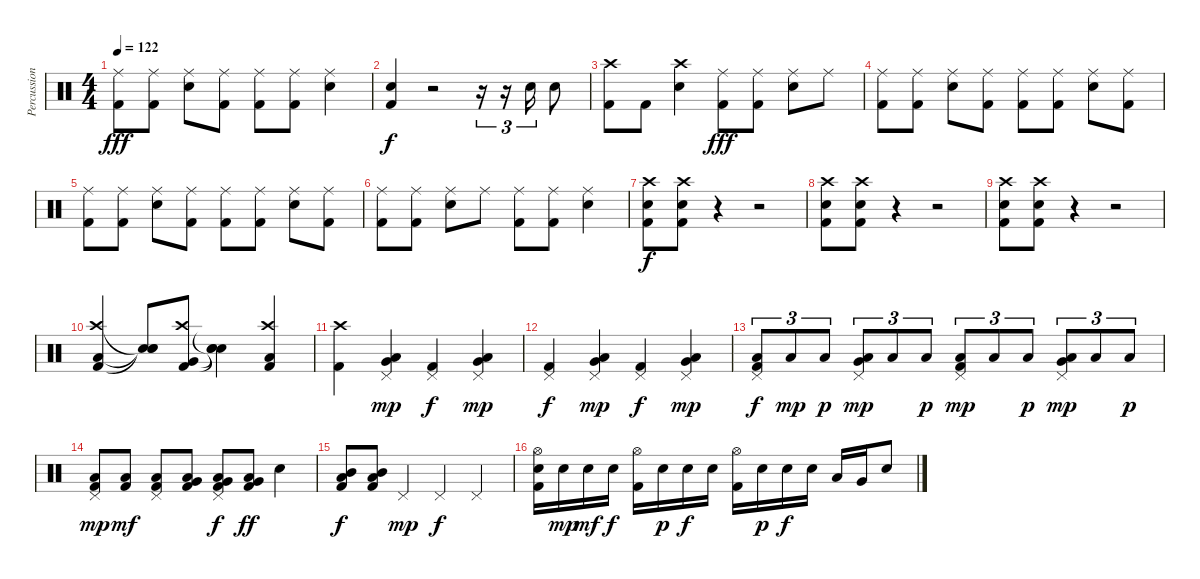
\track ("Percussion (Peter)" "Percussion") {instrument percussion}
\staff {score}
\articulation defaults
\ts (4 4)
\tempo 122
\clef neutral
\ks c
("Ride (middle)" "Kick (hit) 2").8{dy fff} ("Ride (middle)" "Kick (hit) 2").8 ("Ride (middle)" "Snare (hit) 2").8 ("Ride (middle)" "Kick (hit) 2").8 ("Ride (middle)" "Kick (hit) 2").8 ("Ride (middle)" "Kick (hit) 2").8 ("Ride (middle)" "Snare (hit) 2").4 |
("Snare (hit) 2" "Kick (hit) 2").4{dy f} r.2 r.16{tu (3 2)} r.16{tu (3 2)} "Snare (hit) 2".16{tu (3 2)} "Snare (hit) 2".8 |
("Crash high (hit)" "Kick (hit) 2").8 "Kick (hit) 2".8 ("Crash high (hit)" "Snare (hit) 2").4 ("Ride (middle)" "Kick (hit) 2").8{dy fff} ("Ride (middle)" "Kick (hit) 2").8 ("Ride (middle)" "Snare (hit) 2").8 "Ride (middle)".8 |
("Ride (middle)" "Kick (hit) 2").8 ("Ride (middle)" "Kick (hit) 2").8 ("Ride (middle)" "Snare (hit) 2").8 ("Ride (middle)" "Kick (hit) 2").8 ("Ride (middle)" "Kick (hit) 2").8 ("Ride (middle)" "Kick (hit) 2").8 ("Ride (middle)" "Snare (hit) 2").8 ("Ride (middle)" "Kick (hit) 2").8 |
("Ride (middle)" "Kick (hit) 2").8 ("Ride (middle)" "Kick (hit) 2").8 ("Ride (middle)" "Snare (hit) 2").8 ("Ride (middle)" "Kick (hit) 2").8 ("Ride (middle)" "Kick (hit) 2").8 ("Ride (middle)" "Kick (hit) 2").8 ("Ride (middle)" "Snare (hit) 2").8 ("Ride (middle)" "Kick (hit) 2").8 |
("Ride (middle)" "Kick (hit) 2").8 ("Ride (middle)" "Kick (hit) 2").8 ("Ride (middle)" "Snare (hit) 2").8 "Ride (middle)".8 ("Ride (middle)" "Kick (hit) 2").8 ("Ride (middle)" "Kick (hit) 2").8 ("Ride (middle)" "Snare (hit) 2").4 |
("Crash high (hit)" "Snare (hit) 2" "Kick (hit) 2").8{dy f} ("Crash high (hit)" "Snare (hit) 2" "Kick (hit) 2").8 r.4 r.2 |
("Crash high (hit)" "Snare (hit) 2" "Kick (hit) 2").8 ("Crash high (hit)" "Snare (hit) 2" "Kick (hit) 2").8 r.4 r.2 |
("Crash high (hit)" "Snare (hit) 2" "Kick (hit) 2").8 ("Crash high (hit)" "Snare (hit) 2" "Kick (hit) 2").8 r.4 r.2 |
("Crash high (hit)" "Low Tom (hit)" "Kick (hit) 2").4 ("Snare (hit)"{t} "Snare (hit)"{t} "Snare (hit)"{t}).8 ("Crash high (hit)" "Very Low Tom (hit)" "Kick (hit) 2").8 ("Snare (hit)"{t} "Snare (hit)"{t} "Snare (hit)"{t}).4 ("Crash high (hit)" "Low Floor Tom (hit)" "Kick (hit) 2").4 |
("Crash high (hit)" "Kick (hit) 2").4 ("Pedal Hi-Hat (hit)" "Low Tom (hit)" "Very Low Tom (hit)").4{dy mp} ("Pedal Hi-Hat (hit)" "Kick (hit) 2").4{dy f} ("Pedal Hi-Hat (hit)" "Low Tom (hit)" "Very Low Tom (hit)").4{dy mp} |
("Pedal Hi-Hat (hit)" "Kick (hit) 2").4{dy f} ("Pedal Hi-Hat (hit)" "Low Tom (hit)" "Very Low Tom (hit)").4{dy mp} ("Pedal Hi-Hat (hit)" "Kick (hit) 2").4{dy f} ("Pedal Hi-Hat (hit)" "Low Tom (hit)" "Very Low Tom (hit)").4{dy mp} |
("Pedal Hi-Hat (hit)" "Low Floor Tom (hit)" "Kick (hit) 2").8{tu (3 2) dy f} "Low Floor Tom (hit)".8{tu (3 2) dy mp} "Low Floor Tom (hit)".8{tu (3 2) dy p} ("Pedal Hi-Hat (hit)" "Low Tom (hit)" "Very Low Tom (hit)").8{tu (3 2) dy mp} "Low Floor Tom (hit)".8{tu (3 2)} "Low Floor Tom (hit)".8{tu (3 2) dy p} ("Pedal Hi-Hat (hit)" "Low Floor Tom (hit)" "Kick (hit) 2").8{tu (3 2) dy mp} "Low Floor Tom (hit)".8{tu (3 2)} "Low Floor Tom (hit)".8{tu (3 2) dy p} ("Pedal Hi-Hat (hit)" "Low Tom (hit)" "Very Low Tom (hit)").8{tu (3 2) dy mp} "Low Floor Tom (hit)".8{tu (3 2)} "Low Floor Tom (hit)".8{tu (3 2) dy p} |
("Pedal Hi-Hat (hit)" "Low Tom (hit)" "Kick (hit) 2").8{dy mp} ("Low Tom (hit)" "Kick (hit) 2").8{dy mf} ("Pedal Hi-Hat (hit)" "Low Tom (hit)" "Kick (hit) 2").8 ("Low Tom (hit)" "Very Low Tom (hit)" "Kick (hit) 2").8 ("Pedal Hi-Hat (hit)" "Low Tom (hit)" "Very Low Tom (hit)" "Kick (hit) 2").8{dy f} ("Low Tom (hit)" "Very Low Tom (hit)" "Kick (hit) 2").8{dy ff} "Snare (hit) 2".4 |
("Mid Tom (hit)" "Low Tom (hit)" "Kick (hit) 2").8{dy f} ("Mid Tom (hit)" "Low Tom (hit)" "Kick (hit) 2").8 "Pedal Hi-Hat (hit)".4{dy mp} "Pedal Hi-Hat (hit)".4{dy f} "Pedal Hi-Hat (hit)".4 |
("Hi-Hat (open)" "Snare (hit) 2" "Kick (hit) 2").16 "Snare (hit) 2".16{dy mp} "Snare (hit) 2".16{dy mf} "Snare (hit) 2".16{dy f} ("Hi-Hat (open)" "Kick (hit) 2").16 "Snare (hit) 2".16{dy p} "Snare (hit) 2".16{dy f} "Snare (hit) 2".16 ("Hi-Hat (open)" "Kick (hit) 2").16 "Snare (hit) 2".16{dy p} "Snare (hit) 2".16{dy f} "Snare (hit) 2".16 "Low Tom (hit)".16 "Very Low Tom (hit)".16 "Snare (hit) 2".8
